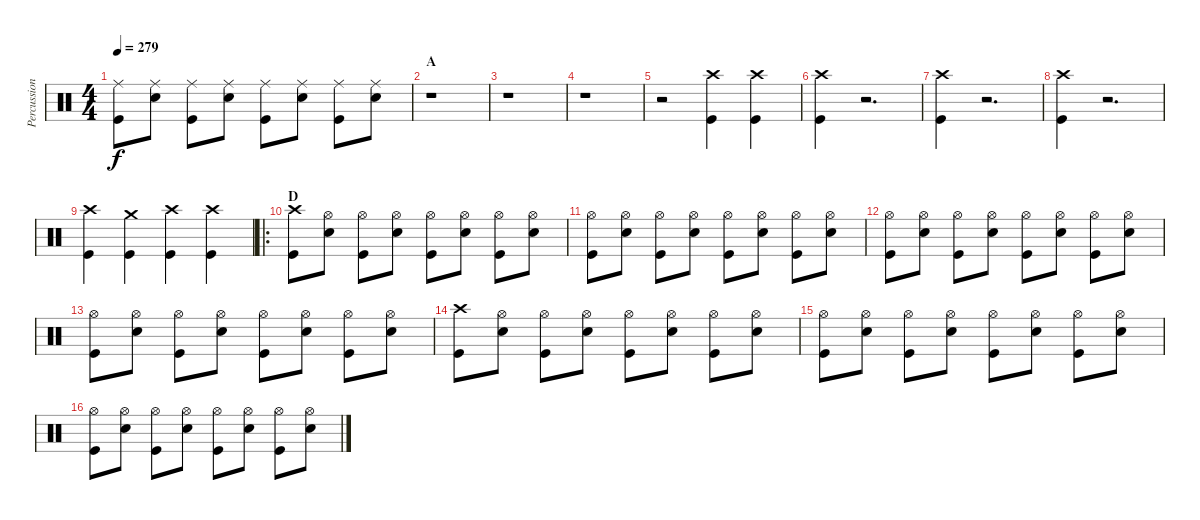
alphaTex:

\track ("Percussion" "Percussion") {instrument percussion}
\staff {score}
\articulation defaults
\ts (4 4)
\tempo 279
\clef neutral
\ks c
("Ride (middle)" "Kick (hit)").8{dy f} ("Ride (middle)" "Snare (hit) 2").8 ("Ride (middle)" "Kick (hit)").8 ("Ride (middle)" "Snare (hit) 2").8 ("Ride (middle)" "Kick (hit)").8 ("Ride (middle)" "Snare (hit) 2").8 ("Ride (middle)" "Kick (hit)").8 ("Ride (middle)" "Snare (hit) 2").8 |
\section ("" "A")
r.1 |
r.1 |
r.1 |
r.2 ("Crash high (hit)" "Kick (hit)").4 ("Crash high (hit)" "Kick (hit)").4 |
("Crash high (hit)" "Kick (hit)").4 r.2{d} |
("Crash high (hit)" "Kick (hit)").4 r.2{d} |
("Crash high (hit)" "Kick (hit)").4 r.2{d} |
("Crash high (hit)" "Kick (hit)").4 ("Crash medium (hit)" "Kick (hit)").4 ("Crash high (hit)" "Kick (hit)").4 ("Crash high (hit)" "Kick (hit)").4 |
\ro
\section ("" "D")
("Crash high (hit)" "Kick (hit)").8 ("Hi-Hat (open)" "Snare (hit) 2").8 ("Hi-Hat (open)" "Kick (hit)").8 ("Hi-Hat (open)" "Snare (hit) 2").8 ("Hi-Hat (open)" "Kick (hit)").8 ("Hi-Hat (open)" "Snare (hit) 2").8 ("Hi-Hat (open)" "Kick (hit)").8 ("Hi-Hat (open)" "Snare (hit) 2").8 |
("Hi-Hat (open)" "Kick (hit)").8 ("Hi-Hat (open)" "Snare (hit) 2").8 ("Hi-Hat (open)" "Kick (hit)").8 ("Hi-Hat (open)" "Snare (hit) 2").8 ("Hi-Hat (open)" "Kick (hit)").8 ("Hi-Hat (open)" "Snare (hit) 2").8 ("Hi-Hat (open)" "Kick (hit)").8 ("Hi-Hat (open)" "Snare (hit) 2").8 |
("Hi-Hat (open)" "Kick (hit)").8 ("Hi-Hat (open)" "Snare (hit) 2").8 ("Hi-Hat (open)" "Kick (hit)").8 ("Hi-Hat (open)" "Snare (hit) 2").8 ("Hi-Hat (open)" "Kick (hit)").8 ("Hi-Hat (open)" "Snare (hit) 2").8 ("Hi-Hat (open)" "Kick (hit)").8 ("Hi-Hat (open)" "Snare (hit) 2").8 |
("Hi-Hat (open)" "Kick (hit)").8 ("Hi-Hat (open)" "Snare (hit) 2").8 ("Hi-Hat (open)" "Kick (hit)").8 ("Hi-Hat (open)" "Snare (hit) 2").8 ("Hi-Hat (open)" "Kick (hit)").8 ("Hi-Hat (open)" "Snare (hit) 2").8 ("Hi-Hat (open)" "Kick (hit)").8 ("Hi-Hat (open)" "Snare (hit) 2").8 |
("Crash high (hit)" "Kick (hit)").8 ("Hi-Hat (open)" "Snare (hit) 2").8 ("Hi-Hat (open)" "Kick (hit)").8 ("Hi-Hat (open)" "Snare (hit) 2").8 ("Hi-Hat (open)" "Kick (hit)").8 ("Hi-Hat (open)" "Snare (hit) 2").8 ("Hi-Hat (open)" "Kick (hit)").8 ("Hi-Hat (open)" "Snare (hit) 2").8 |
("Hi-Hat (open)" "Kick (hit)").8 ("Hi-Hat (open)" "Snare (hit) 2").8 ("Hi-Hat (open)" "Kick (hit)").8 ("Hi-Hat (open)" "Snare (hit) 2").8 ("Hi-Hat (open)" "Kick (hit)").8 ("Hi-Hat (open)" "Snare (hit) 2").8 ("Hi-Hat (open)" "Kick (hit)").8 ("Hi-Hat (open)" "Snare (hit) 2").8 |
("Hi-Hat (open)" "Kick (hit)").8 ("Hi-Hat (open)" "Snare (hit) 2").8 ("Hi-Hat (open)" "Kick (hit)").8 ("Hi-Hat (open)" "Snare (hit) 2").8 ("Hi-Hat (open)" "Kick (hit)").8 ("Hi-Hat (open)" "Snare (hit) 2").8 ("Hi-Hat (open)" "Kick (hit)").8 ("Hi-Hat (open)" "Snare (hit) 2").8
